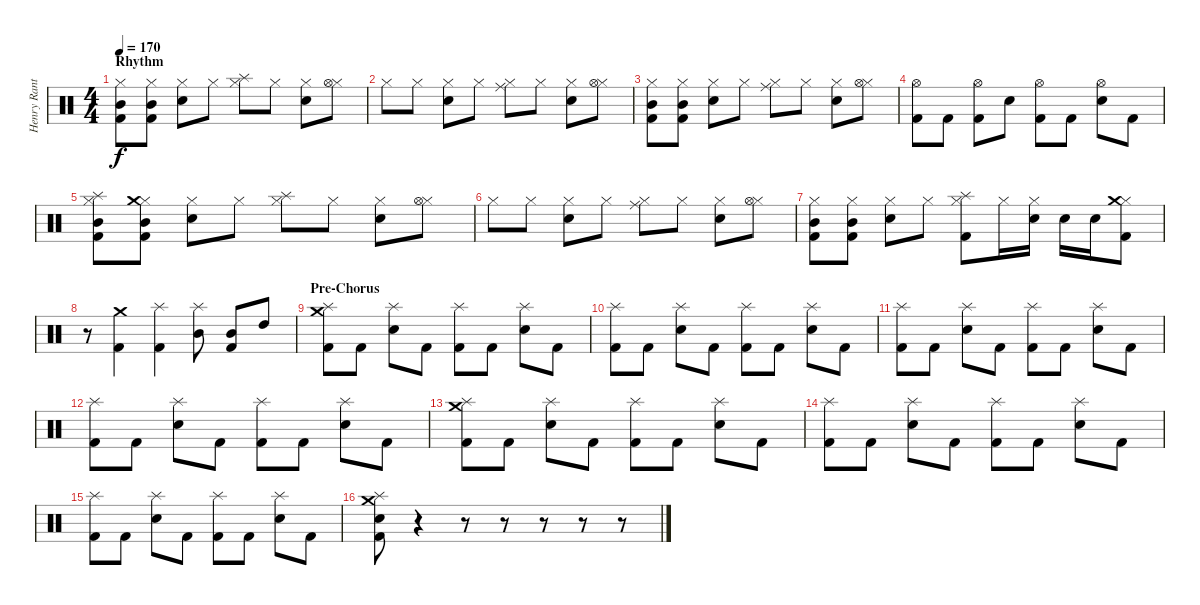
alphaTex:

\track ("Henry Ranta -Drums-" "Henry Rant") {instrument percussion}
\staff {score}
\articulation defaults
\ts (4 4)
\section ("" "Rhythm")
\tempo 170
\clef neutral
\ks c
("Hi-Hat (closed)" "Mid Tom (hit)" "Kick (hit) 2").8{dy f} ("Hi-Hat (closed)" "Mid Tom (hit)" "Kick (hit) 2").8 ("Hi-Hat (closed)" "Snare (hit) 2").8 "Hi-Hat (closed)".8 ("Hi-Hat (closed)" "Splash (hit)").8 "Hi-Hat (closed)".8 ("Hi-Hat (closed)" "Snare (hit) 2").8 ("Hi-Hat (closed)" "Hi-Hat (open)").8 |
"Hi-Hat (closed)".8 "Hi-Hat (closed)".8 ("Hi-Hat (closed)" "Snare (hit) 2").8 "Hi-Hat (closed)".8 ("Hi-Hat (closed)" "Ride (middle)").8 "Hi-Hat (closed)".8 ("Hi-Hat (closed)" "Snare (hit) 2").8 ("Hi-Hat (closed)" "Hi-Hat (open)").8 |
("Hi-Hat (closed)" "Mid Tom (hit)" "Kick (hit) 2").8 ("Hi-Hat (closed)" "Mid Tom (hit)" "Kick (hit) 2").8 ("Hi-Hat (closed)" "Snare (hit) 2").8 "Hi-Hat (closed)".8 ("Hi-Hat (closed)" "Ride (middle)").8 "Hi-Hat (closed)".8 ("Hi-Hat (closed)" "Snare (hit) 2").8 ("Hi-Hat (closed)" "Hi-Hat (open)").8 |
("Hi-Hat (open)" "Kick (hit) 2").8 "Kick (hit) 2".8 ("Hi-Hat (open)" "Kick (hit) 2").8 "Snare (hit) 2".8 ("Hi-Hat (open)" "Kick (hit) 2").8 "Kick (hit) 2".8 ("Hi-Hat (open)" "Snare (hit) 2").8 "Kick (hit) 2".8 |
("Hi-Hat (closed)" "Splash (hit)" "Mid Tom (hit)" "Kick (hit) 2").8 ("Hi-Hat (closed)" "Crash medium (hit)" "Mid Tom (hit)" "Kick (hit) 2").8 ("Hi-Hat (closed)" "Snare (hit) 2").8 "Hi-Hat (closed)".8 ("Hi-Hat (closed)" "Splash (hit)").8 "Hi-Hat (closed)".8 ("Hi-Hat (closed)" "Snare (hit) 2").8 ("Hi-Hat (closed)" "Hi-Hat (open)").8 |
"Hi-Hat (closed)".8 "Hi-Hat (closed)".8 ("Hi-Hat (closed)" "Snare (hit) 2").8 "Hi-Hat (closed)".8 ("Hi-Hat (closed)" "Ride (middle)").8 "Hi-Hat (closed)".8 ("Hi-Hat (closed)" "Snare (hit) 2").8 ("Hi-Hat (closed)" "Hi-Hat (open)").8 |
("Hi-Hat (closed)" "Mid Tom (hit)" "Kick (hit) 2").8 ("Hi-Hat (closed)" "Mid Tom (hit)" "Kick (hit) 2").8 ("Hi-Hat (closed)" "Snare (hit) 2").8 "Hi-Hat (closed)".8 ("Hi-Hat (closed)" "Splash (hit)" "Kick (hit) 2").8 "Hi-Hat (closed)".16 ("Hi-Hat (closed)" "Snare (hit) 2").16 "Snare (hit) 2".16 "Snare (hit) 2".16 ("Hi-Hat (closed)" "Crash medium (hit)" "Kick (hit) 2").8 |
r.8 ("Crash medium (hit)" "Kick (hit) 2").4 ("Splash (hit)" "Kick (hit) 2").4 ("Splash (hit)" "Mid Tom (hit)").8 ("Mid Tom (hit)" "Kick (hit) 2").8 "High Tom (hit)".8 |
\section ("" "Pre-Chorus")
("Splash (hit)" "Crash medium (hit)" "Kick (hit) 2").8 "Kick (hit) 2".8 ("Splash (hit)" "Snare (hit) 2").8 "Kick (hit) 2".8 ("Splash (hit)" "Kick (hit) 2").8 "Kick (hit) 2".8 ("Splash (hit)" "Snare (hit) 2").8 "Kick (hit) 2".8 |
("Splash (hit)" "Kick (hit) 2").8 "Kick (hit) 2".8 ("Splash (hit)" "Snare (hit) 2").8 "Kick (hit) 2".8 ("Splash (hit)" "Kick (hit) 2").8 "Kick (hit) 2".8 ("Splash (hit)" "Snare (hit) 2").8 "Kick (hit) 2".8 |
("Splash (hit)" "Kick (hit) 2").8 "Kick (hit) 2".8 ("Splash (hit)" "Snare (hit) 2").8 "Kick (hit) 2".8 ("Splash (hit)" "Kick (hit) 2").8 "Kick (hit) 2".8 ("Splash (hit)" "Snare (hit) 2").8 "Kick (hit) 2".8 |
("Splash (hit)" "Kick (hit) 2").8 "Kick (hit) 2".8 ("Splash (hit)" "Snare (hit) 2").8 "Kick (hit) 2".8 ("Splash (hit)" "Kick (hit) 2").8 "Kick (hit) 2".8 ("Splash (hit)" "Snare (hit) 2").8 "Kick (hit) 2".8 |
("Splash (hit)" "Crash medium (hit)" "Kick (hit) 2").8 "Kick (hit) 2".8 ("Splash (hit)" "Snare (hit) 2").8 "Kick (hit) 2".8 ("Splash (hit)" "Kick (hit) 2").8 "Kick (hit) 2".8 ("Splash (hit)" "Snare (hit) 2").8 "Kick (hit) 2".8 |
("Splash (hit)" "Kick (hit) 2").8 "Kick (hit) 2".8 ("Splash (hit)" "Snare (hit) 2").8 "Kick (hit) 2".8 ("Splash (hit)" "Kick (hit) 2").8 "Kick (hit) 2".8 ("Splash (hit)" "Snare (hit) 2").8 "Kick (hit) 2".8 |
("Splash (hit)" "Kick (hit) 2").8 "Kick (hit) 2".8 ("Splash (hit)" "Snare (hit) 2").8 "Kick (hit) 2".8 ("Splash (hit)" "Kick (hit) 2").8 "Kick (hit) 2".8 ("Splash (hit)" "Snare (hit) 2").8 "Kick (hit) 2".8 |
("Splash (hit)" "Crash medium (hit)" "Snare (hit) 2" "Kick (hit) 2").8 r.4 r.8 r.8 r.8 r.8 r.8
